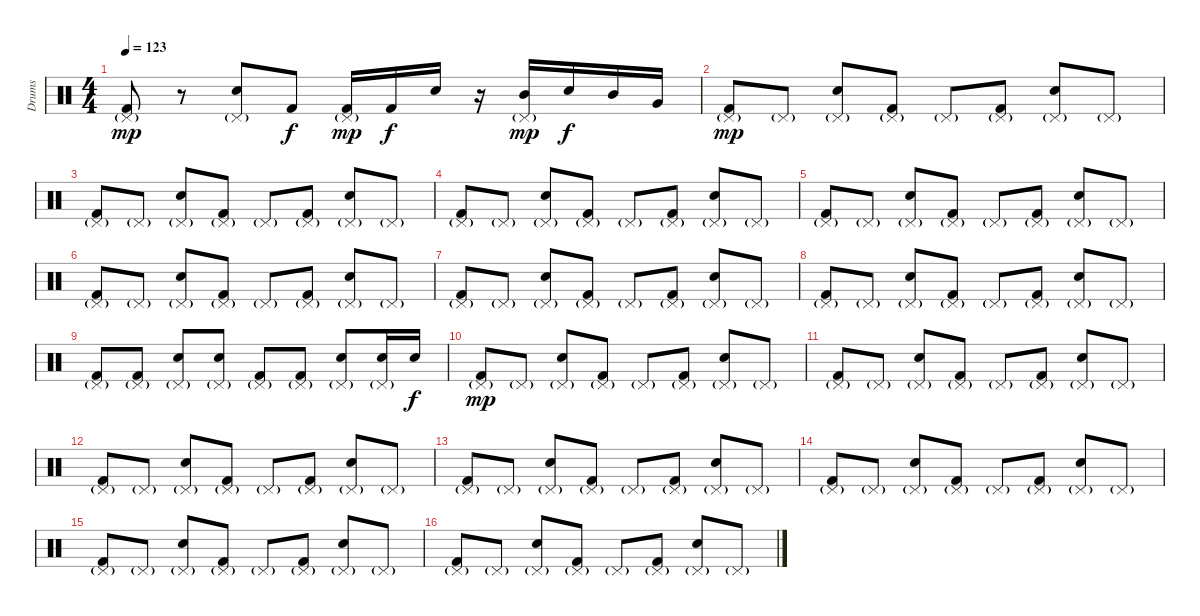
\track ("Drums" "Drums") {instrument percussion}
\staff {score}
\articulation defaults
\ts (4 4)
\tempo 123
\clef neutral
\ks c
("Pedal Hi-Hat (hit)"{g} "Kick (hit) 2").8{dy mp} r.8 ("Pedal Hi-Hat (hit)"{g} "Snare (hit) 2").8 "Kick (hit) 2".8{dy f} ("Pedal Hi-Hat (hit)"{g} "Kick (hit) 2").16{dy mp} "Kick (hit) 2".16{dy f} "Snare (hit) 2".16 r.16 ("Pedal Hi-Hat (hit)"{g} "Mid Tom (hit)").16{dy mp} "Snare (hit) 2".16{dy f} "Mid Tom (hit)".16 "Very Low Tom (hit)".16 |
("Pedal Hi-Hat (hit)"{g} "Kick (hit) 2").8{dy mp} "Pedal Hi-Hat (hit)"{g}.8 ("Pedal Hi-Hat (hit)"{g} "Snare (hit) 2").8 ("Pedal Hi-Hat (hit)"{g} "Kick (hit) 2").8 "Pedal Hi-Hat (hit)"{g}.8 ("Pedal Hi-Hat (hit)"{g} "Kick (hit) 2").8 ("Pedal Hi-Hat (hit)"{g} "Snare (hit) 2").8 "Pedal Hi-Hat (hit)"{g}.8 |
("Pedal Hi-Hat (hit)"{g} "Kick (hit) 2").8 "Pedal Hi-Hat (hit)"{g}.8 ("Pedal Hi-Hat (hit)"{g} "Snare (hit) 2").8 ("Pedal Hi-Hat (hit)"{g} "Kick (hit) 2").8 "Pedal Hi-Hat (hit)"{g}.8 ("Pedal Hi-Hat (hit)"{g} "Kick (hit) 2").8 ("Pedal Hi-Hat (hit)"{g} "Snare (hit) 2").8 "Pedal Hi-Hat (hit)"{g}.8 |
("Pedal Hi-Hat (hit)"{g} "Kick (hit) 2").8 "Pedal Hi-Hat (hit)"{g}.8 ("Pedal Hi-Hat (hit)"{g} "Snare (hit) 2").8 ("Pedal Hi-Hat (hit)"{g} "Kick (hit) 2").8 "Pedal Hi-Hat (hit)"{g}.8 ("Pedal Hi-Hat (hit)"{g} "Kick (hit) 2").8 ("Pedal Hi-Hat (hit)"{g} "Snare (hit) 2").8 "Pedal Hi-Hat (hit)"{g}.8 |
("Pedal Hi-Hat (hit)"{g} "Kick (hit) 2").8 "Pedal Hi-Hat (hit)"{g}.8 ("Pedal Hi-Hat (hit)"{g} "Snare (hit) 2").8 ("Pedal Hi-Hat (hit)"{g} "Kick (hit) 2").8 "Pedal Hi-Hat (hit)"{g}.8 ("Pedal Hi-Hat (hit)"{g} "Kick (hit) 2").8 ("Pedal Hi-Hat (hit)"{g} "Snare (hit) 2").8 "Pedal Hi-Hat (hit)"{g}.8 |
("Pedal Hi-Hat (hit)"{g} "Kick (hit) 2").8 "Pedal Hi-Hat (hit)"{g}.8 ("Pedal Hi-Hat (hit)"{g} "Snare (hit) 2").8 ("Pedal Hi-Hat (hit)"{g} "Kick (hit) 2").8 "Pedal Hi-Hat (hit)"{g}.8 ("Pedal Hi-Hat (hit)"{g} "Kick (hit) 2").8 ("Pedal Hi-Hat (hit)"{g} "Snare (hit) 2").8 "Pedal Hi-Hat (hit)"{g}.8 |
("Pedal Hi-Hat (hit)"{g} "Kick (hit) 2").8 "Pedal Hi-Hat (hit)"{g}.8 ("Pedal Hi-Hat (hit)"{g} "Snare (hit) 2").8 ("Pedal Hi-Hat (hit)"{g} "Kick (hit) 2").8 "Pedal Hi-Hat (hit)"{g}.8 ("Pedal Hi-Hat (hit)"{g} "Kick (hit) 2").8 ("Pedal Hi-Hat (hit)"{g} "Snare (hit) 2").8 "Pedal Hi-Hat (hit)"{g}.8 |
("Pedal Hi-Hat (hit)"{g} "Kick (hit) 2").8 "Pedal Hi-Hat (hit)"{g}.8 ("Pedal Hi-Hat (hit)"{g} "Snare (hit) 2").8 ("Pedal Hi-Hat (hit)"{g} "Kick (hit) 2").8 "Pedal Hi-Hat (hit)"{g}.8 ("Pedal Hi-Hat (hit)"{g} "Kick (hit) 2").8 ("Pedal Hi-Hat (hit)"{g} "Snare (hit) 2").8 "Pedal Hi-Hat (hit)"{g}.8 |
("Pedal Hi-Hat (hit)"{g} "Kick (hit) 2").8 ("Pedal Hi-Hat (hit)"{g} "Kick (hit) 2").8 ("Pedal Hi-Hat (hit)"{g} "Snare (hit) 2").8 ("Pedal Hi-Hat (hit)"{g} "Snare (hit) 2").8 ("Pedal Hi-Hat (hit)"{g} "Kick (hit) 2").8 ("Pedal Hi-Hat (hit)"{g} "Kick (hit) 2").8 ("Pedal Hi-Hat (hit)"{g} "Snare (hit) 2").8 ("Pedal Hi-Hat (hit)"{g} "Snare (hit) 2").16 "Snare (hit) 2".16{dy f} |
("Pedal Hi-Hat (hit)"{g} "Kick (hit) 2").8{dy mp} "Pedal Hi-Hat (hit)"{g}.8 ("Pedal Hi-Hat (hit)"{g} "Snare (hit) 2").8 ("Pedal Hi-Hat (hit)"{g} "Kick (hit) 2").8 "Pedal Hi-Hat (hit)"{g}.8 ("Pedal Hi-Hat (hit)"{g} "Kick (hit) 2").8 ("Pedal Hi-Hat (hit)"{g} "Snare (hit) 2").8 "Pedal Hi-Hat (hit)"{g}.8 |
("Pedal Hi-Hat (hit)"{g} "Kick (hit) 2").8 "Pedal Hi-Hat (hit)"{g}.8 ("Pedal Hi-Hat (hit)"{g} "Snare (hit) 2").8 ("Pedal Hi-Hat (hit)"{g} "Kick (hit) 2").8 "Pedal Hi-Hat (hit)"{g}.8 ("Pedal Hi-Hat (hit)"{g} "Kick (hit) 2").8 ("Pedal Hi-Hat (hit)"{g} "Snare (hit) 2").8 "Pedal Hi-Hat (hit)"{g}.8 |
("Pedal Hi-Hat (hit)"{g} "Kick (hit) 2").8 "Pedal Hi-Hat (hit)"{g}.8 ("Pedal Hi-Hat (hit)"{g} "Snare (hit) 2").8 ("Pedal Hi-Hat (hit)"{g} "Kick (hit) 2").8 "Pedal Hi-Hat (hit)"{g}.8 ("Pedal Hi-Hat (hit)"{g} "Kick (hit) 2").8 ("Pedal Hi-Hat (hit)"{g} "Snare (hit) 2").8 "Pedal Hi-Hat (hit)"{g}.8 |
("Pedal Hi-Hat (hit)"{g} "Kick (hit) 2").8 "Pedal Hi-Hat (hit)"{g}.8 ("Pedal Hi-Hat (hit)"{g} "Snare (hit) 2").8 ("Pedal Hi-Hat (hit)"{g} "Kick (hit) 2").8 "Pedal Hi-Hat (hit)"{g}.8 ("Pedal Hi-Hat (hit)"{g} "Kick (hit) 2").8 ("Pedal Hi-Hat (hit)"{g} "Snare (hit) 2").8 "Pedal Hi-Hat (hit)"{g}.8 |
("Pedal Hi-Hat (hit)"{g} "Kick (hit) 2").8 "Pedal Hi-Hat (hit)"{g}.8 ("Pedal Hi-Hat (hit)"{g} "Snare (hit) 2").8 ("Pedal Hi-Hat (hit)"{g} "Kick (hit) 2").8 "Pedal Hi-Hat (hit)"{g}.8 ("Pedal Hi-Hat (hit)"{g} "Kick (hit) 2").8 ("Pedal Hi-Hat (hit)"{g} "Snare (hit) 2").8 "Pedal Hi-Hat (hit)"{g}.8 |
("Pedal Hi-Hat (hit)"{g} "Kick (hit) 2").8 "Pedal Hi-Hat (hit)"{g}.8 ("Pedal Hi-Hat (hit)"{g} "Snare (hit) 2").8 ("Pedal Hi-Hat (hit)"{g} "Kick (hit) 2").8 "Pedal Hi-Hat (hit)"{g}.8 ("Pedal Hi-Hat (hit)"{g} "Kick (hit) 2").8 ("Pedal Hi-Hat (hit)"{g} "Snare (hit) 2").8 "Pedal Hi-Hat (hit)"{g}.8 |
("Pedal Hi-Hat (hit)"{g} "Kick (hit) 2").8 "Pedal Hi-Hat (hit)"{g}.8 ("Pedal Hi-Hat (hit)"{g} "Snare (hit) 2").8 ("Pedal Hi-Hat (hit)"{g} "Kick (hit) 2").8 "Pedal Hi-Hat (hit)"{g}.8 ("Pedal Hi-Hat (hit)"{g} "Kick (hit) 2").8 ("Pedal Hi-Hat (hit)"{g} "Snare (hit) 2").8 "Pedal Hi-Hat (hit)"{g}.8
